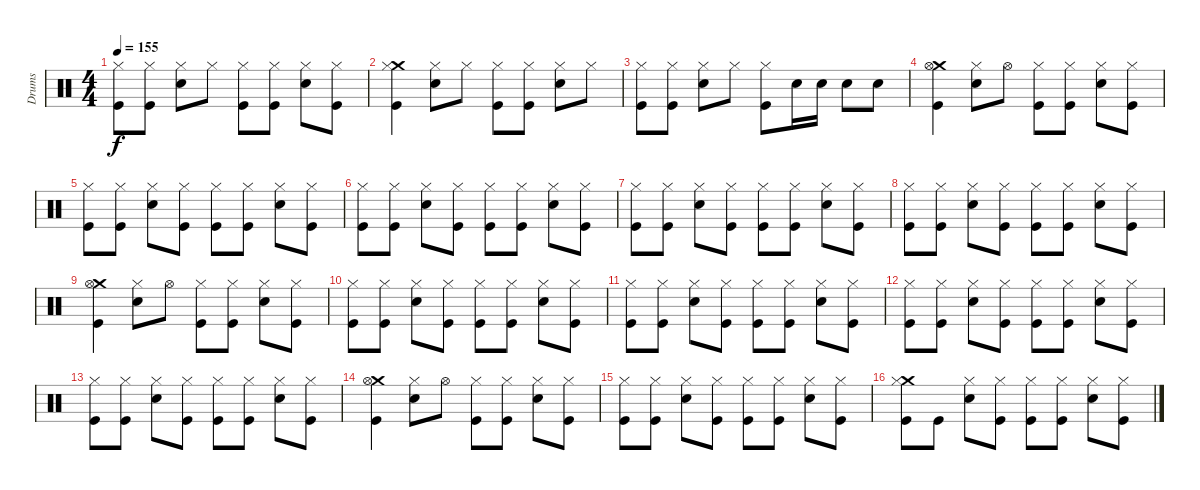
\track ("Drums" "Drums") {instrument percussion}
\staff {score}
\articulation defaults
\ts (4 4)
\tempo 155
\clef neutral
\ks c
("Hi-Hat (closed)" "Kick (hit)").8{dy f} ("Hi-Hat (closed)" "Kick (hit)").8 ("Hi-Hat (closed)" "Snare (hit) 2").8 "Hi-Hat (closed)".8 ("Hi-Hat (closed)" "Kick (hit)").8 ("Hi-Hat (closed)" "Kick (hit)").8 ("Hi-Hat (closed)" "Snare (hit) 2").8 ("Hi-Hat (closed)" "Kick (hit)").8 |
("Crash medium (hit)" "Hi-Hat (closed)" "Kick (hit)").4 ("Hi-Hat (closed)" "Snare (hit) 2").8 "Hi-Hat (closed)".8 ("Hi-Hat (closed)" "Kick (hit)").8 ("Hi-Hat (closed)" "Kick (hit)").8 ("Hi-Hat (closed)" "Snare (hit) 2").8 "Hi-Hat (closed)".8 |
("Hi-Hat (closed)" "Kick (hit)").8 ("Hi-Hat (closed)" "Kick (hit)").8 ("Hi-Hat (closed)" "Snare (hit) 2").8 "Hi-Hat (closed)".8 ("Hi-Hat (closed)" "Kick (hit)").8 "Snare (hit) 2".16 "Snare (hit) 2".16 "Snare (hit) 2".8 "Snare (hit) 2".8 |
("Crash medium (hit)" "Hi-Hat (open)" "Kick (hit)").4 ("Hi-Hat (closed)" "Snare (hit) 2").8 "Hi-Hat (open)".8 ("Hi-Hat (closed)" "Kick (hit)").8 ("Hi-Hat (closed)" "Kick (hit)").8 ("Hi-Hat (closed)" "Snare (hit) 2").8 ("Hi-Hat (closed)" "Kick (hit)").8 |
("Hi-Hat (closed)" "Kick (hit)").8 ("Hi-Hat (closed)" "Kick (hit)").8 ("Hi-Hat (closed)" "Snare (hit) 2").8 ("Hi-Hat (closed)" "Kick (hit)").8 ("Hi-Hat (closed)" "Kick (hit)").8 ("Hi-Hat (closed)" "Kick (hit)").8 ("Hi-Hat (closed)" "Snare (hit) 2").8 ("Hi-Hat (closed)" "Kick (hit)").8 |
("Hi-Hat (closed)" "Kick (hit)").8 ("Hi-Hat (closed)" "Kick (hit)").8 ("Hi-Hat (closed)" "Snare (hit) 2").8 ("Hi-Hat (closed)" "Kick (hit)").8 ("Hi-Hat (closed)" "Kick (hit)").8 ("Hi-Hat (closed)" "Kick (hit)").8 ("Hi-Hat (closed)" "Snare (hit) 2").8 ("Hi-Hat (closed)" "Kick (hit)").8 |
("Hi-Hat (closed)" "Kick (hit)").8 ("Hi-Hat (closed)" "Kick (hit)").8 ("Hi-Hat (closed)" "Snare (hit) 2").8 ("Hi-Hat (closed)" "Kick (hit)").8 ("Hi-Hat (closed)" "Kick (hit)").8 ("Hi-Hat (closed)" "Kick (hit)").8 ("Hi-Hat (closed)" "Snare (hit) 2").8 ("Hi-Hat (closed)" "Kick (hit)").8 |
("Hi-Hat (closed)" "Kick (hit)").8 ("Hi-Hat (closed)" "Kick (hit)").8 ("Hi-Hat (closed)" "Snare (hit) 2").8 ("Hi-Hat (closed)" "Kick (hit)").8 ("Hi-Hat (closed)" "Kick (hit)").8 ("Hi-Hat (closed)" "Kick (hit)").8 ("Hi-Hat (closed)" "Snare (hit) 2").8 ("Hi-Hat (closed)" "Kick (hit)").8 |
("Crash medium (hit)" "Hi-Hat (open)" "Kick (hit)").4 ("Hi-Hat (closed)" "Snare (hit) 2").8 "Hi-Hat (open)".8 ("Hi-Hat (closed)" "Kick (hit)").8 ("Hi-Hat (closed)" "Kick (hit)").8 ("Hi-Hat (closed)" "Snare (hit) 2").8 ("Hi-Hat (closed)" "Kick (hit)").8 |
("Hi-Hat (closed)" "Kick (hit)").8 ("Hi-Hat (closed)" "Kick (hit)").8 ("Hi-Hat (closed)" "Snare (hit) 2").8 ("Hi-Hat (closed)" "Kick (hit)").8 ("Hi-Hat (closed)" "Kick (hit)").8 ("Hi-Hat (closed)" "Kick (hit)").8 ("Hi-Hat (closed)" "Snare (hit) 2").8 ("Hi-Hat (closed)" "Kick (hit)").8 |
("Hi-Hat (closed)" "Kick (hit)").8 ("Hi-Hat (closed)" "Kick (hit)").8 ("Hi-Hat (closed)" "Snare (hit) 2").8 ("Hi-Hat (closed)" "Kick (hit)").8 ("Hi-Hat (closed)" "Kick (hit)").8 ("Hi-Hat (closed)" "Kick (hit)").8 ("Hi-Hat (closed)" "Snare (hit) 2").8 ("Hi-Hat (closed)" "Kick (hit)").8 |
("Hi-Hat (closed)" "Kick (hit)").8 ("Hi-Hat (closed)" "Kick (hit)").8 ("Hi-Hat (closed)" "Snare (hit) 2").8 ("Hi-Hat (closed)" "Kick (hit)").8 ("Hi-Hat (closed)" "Kick (hit)").8 ("Hi-Hat (closed)" "Kick (hit)").8 ("Hi-Hat (closed)" "Snare (hit) 2").8 ("Hi-Hat (closed)" "Kick (hit)").8 |
("Hi-Hat (closed)" "Kick (hit)").8 ("Hi-Hat (closed)" "Kick (hit)").8 ("Hi-Hat (closed)" "Snare (hit) 2").8 ("Hi-Hat (closed)" "Kick (hit)").8 ("Hi-Hat (closed)" "Kick (hit)").8 ("Hi-Hat (closed)" "Kick (hit)").8 ("Hi-Hat (closed)" "Snare (hit) 2").8 ("Hi-Hat (closed)" "Kick (hit)").8 |
("Crash medium (hit)" "Hi-Hat (open)" "Kick (hit)").4 ("Hi-Hat (closed)" "Snare (hit) 2").8 "Hi-Hat (open)".8 ("Hi-Hat (closed)" "Kick (hit)").8 ("Hi-Hat (closed)" "Kick (hit)").8 ("Hi-Hat (closed)" "Snare (hit) 2").8 ("Hi-Hat (closed)" "Kick (hit)").8 |
("Hi-Hat (closed)" "Kick (hit)").8 ("Hi-Hat (closed)" "Kick (hit)").8 ("Hi-Hat (closed)" "Snare (hit) 2").8 ("Hi-Hat (closed)" "Kick (hit)").8 ("Hi-Hat (closed)" "Kick (hit)").8 ("Hi-Hat (closed)" "Kick (hit)").8 ("Hi-Hat (closed)" "Snare (hit) 2").8 ("Hi-Hat (closed)" "Kick (hit)").8 |
("Crash medium (hit)" "Hi-Hat (closed)" "Kick (hit)").8 "Kick (hit)".8 ("Hi-Hat (closed)" "Snare (hit) 2").8 ("Hi-Hat (closed)" "Kick (hit)").8 ("Hi-Hat (closed)" "Kick (hit)").8 ("Hi-Hat (closed)" "Kick (hit)").8 ("Hi-Hat (closed)" "Snare (hit) 2").8 ("Hi-Hat (closed)" "Kick (hit)").8
